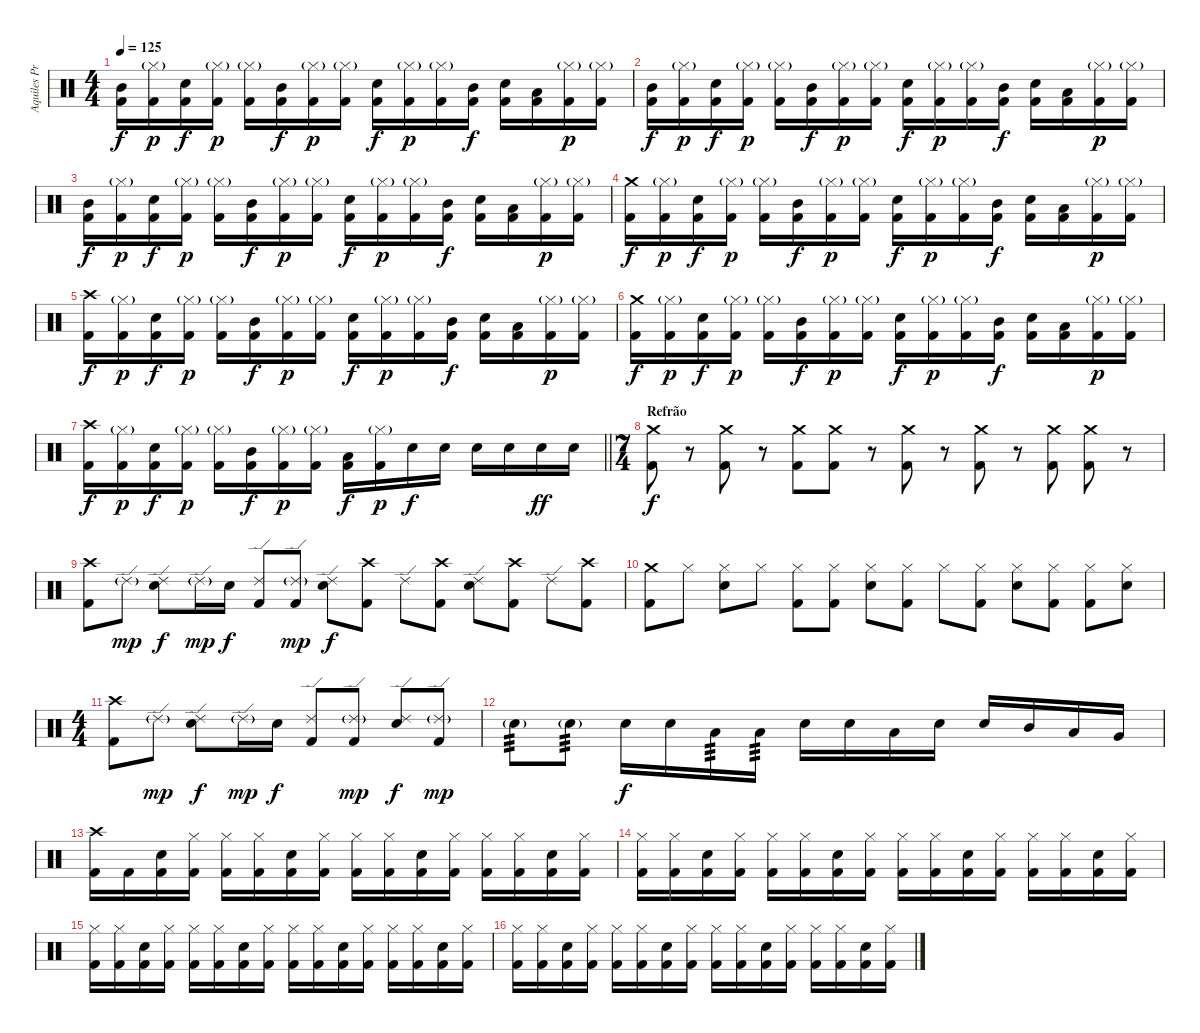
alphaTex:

\track ("Aquiles Priester" "Aquiles Pr") {instrument percussion}
\staff {score}
\articulation defaults
\ts (4 4)
\tempo 125
\clef neutral
\ks c
("Mid Tom (hit)" "Kick (hit) 2").16{dy f} ("Hi-Hat (closed)"{g} "Kick (hit) 2").16{dy p} ("Electric Snare (hit)" "Kick (hit) 2").16{dy f} ("Hi-Hat (closed)"{g} "Kick (hit) 2").16{dy p} ("Hi-Hat (closed)"{g} "Kick (hit) 2").16 ("Mid Tom (hit)" "Kick (hit) 2").16{dy f} ("Hi-Hat (closed)"{g} "Kick (hit) 2").16{dy p} ("Hi-Hat (closed)"{g} "Kick (hit) 2").16 ("Electric Snare (hit)" "Kick (hit) 2").16{dy f} ("Hi-Hat (closed)"{g} "Kick (hit) 2").16{dy p} ("Hi-Hat (closed)"{g} "Kick (hit) 2").16 ("Mid Tom (hit)" "Kick (hit) 2").16{dy f} ("Electric Snare (hit)" "Kick (hit) 2").16 ("Low Tom (hit)" "Kick (hit) 2").16 ("Hi-Hat (closed)"{g} "Kick (hit) 2").16{dy p} ("Hi-Hat (closed)"{g} "Kick (hit) 2").16 |
("Mid Tom (hit)" "Kick (hit) 2").16{dy f} ("Hi-Hat (closed)"{g} "Kick (hit) 2").16{dy p} ("Electric Snare (hit)" "Kick (hit) 2").16{dy f} ("Hi-Hat (closed)"{g} "Kick (hit) 2").16{dy p} ("Hi-Hat (closed)"{g} "Kick (hit) 2").16 ("Mid Tom (hit)" "Kick (hit) 2").16{dy f} ("Hi-Hat (closed)"{g} "Kick (hit) 2").16{dy p} ("Hi-Hat (closed)"{g} "Kick (hit) 2").16 ("Electric Snare (hit)" "Kick (hit) 2").16{dy f} ("Hi-Hat (closed)"{g} "Kick (hit) 2").16{dy p} ("Hi-Hat (closed)"{g} "Kick (hit) 2").16 ("Mid Tom (hit)" "Kick (hit) 2").16{dy f} ("Electric Snare (hit)" "Kick (hit) 2").16 ("Low Tom (hit)" "Kick (hit) 2").16 ("Hi-Hat (closed)"{g} "Kick (hit) 2").16{dy p} ("Hi-Hat (closed)"{g} "Kick (hit) 2").16 |
("Mid Tom (hit)" "Kick (hit) 2").16{dy f} ("Hi-Hat (closed)"{g} "Kick (hit) 2").16{dy p} ("Electric Snare (hit)" "Kick (hit) 2").16{dy f} ("Hi-Hat (closed)"{g} "Kick (hit) 2").16{dy p} ("Hi-Hat (closed)"{g} "Kick (hit) 2").16 ("Mid Tom (hit)" "Kick (hit) 2").16{dy f} ("Hi-Hat (closed)"{g} "Kick (hit) 2").16{dy p} ("Hi-Hat (closed)"{g} "Kick (hit) 2").16 ("Electric Snare (hit)" "Kick (hit) 2").16{dy f} ("Hi-Hat (closed)"{g} "Kick (hit) 2").16{dy p} ("Hi-Hat (closed)"{g} "Kick (hit) 2").16 ("Mid Tom (hit)" "Kick (hit) 2").16{dy f} ("Electric Snare (hit)" "Kick (hit) 2").16 ("Low Tom (hit)" "Kick (hit) 2").16 ("Hi-Hat (closed)"{g} "Kick (hit) 2").16{dy p} ("Hi-Hat (closed)"{g} "Kick (hit) 2").16 |
("Crash medium (hit)" "Kick (hit) 2").16{dy f} ("Hi-Hat (closed)"{g} "Kick (hit) 2").16{dy p} ("Electric Snare (hit)" "Kick (hit) 2").16{dy f} ("Hi-Hat (closed)"{g} "Kick (hit) 2").16{dy p} ("Hi-Hat (closed)"{g} "Kick (hit) 2").16 ("Mid Tom (hit)" "Kick (hit) 2").16{dy f} ("Hi-Hat (closed)"{g} "Kick (hit) 2").16{dy p} ("Hi-Hat (closed)"{g} "Kick (hit) 2").16 ("Electric Snare (hit)" "Kick (hit) 2").16{dy f} ("Hi-Hat (closed)"{g} "Kick (hit) 2").16{dy p} ("Hi-Hat (closed)"{g} "Kick (hit) 2").16 ("Mid Tom (hit)" "Kick (hit) 2").16{dy f} ("Electric Snare (hit)" "Kick (hit) 2").16 ("Low Tom (hit)" "Kick (hit) 2").16 ("Hi-Hat (closed)"{g} "Kick (hit) 2").16{dy p} ("Hi-Hat (closed)"{g} "Kick (hit) 2").16 |
("Crash high (hit)" "Kick (hit) 2").16{dy f} ("Hi-Hat (closed)"{g} "Kick (hit) 2").16{dy p} ("Electric Snare (hit)" "Kick (hit) 2").16{dy f} ("Hi-Hat (closed)"{g} "Kick (hit) 2").16{dy p} ("Hi-Hat (closed)"{g} "Kick (hit) 2").16 ("Mid Tom (hit)" "Kick (hit) 2").16{dy f} ("Hi-Hat (closed)"{g} "Kick (hit) 2").16{dy p} ("Hi-Hat (closed)"{g} "Kick (hit) 2").16 ("Electric Snare (hit)" "Kick (hit) 2").16{dy f} ("Hi-Hat (closed)"{g} "Kick (hit) 2").16{dy p} ("Hi-Hat (closed)"{g} "Kick (hit) 2").16 ("Mid Tom (hit)" "Kick (hit) 2").16{dy f} ("Electric Snare (hit)" "Kick (hit) 2").16 ("Low Tom (hit)" "Kick (hit) 2").16 ("Hi-Hat (closed)"{g} "Kick (hit) 2").16{dy p} ("Hi-Hat (closed)"{g} "Kick (hit) 2").16 |
("Crash medium (hit)" "Kick (hit) 2").16{dy f} ("Hi-Hat (closed)"{g} "Kick (hit) 2").16{dy p} ("Electric Snare (hit)" "Kick (hit) 2").16{dy f} ("Hi-Hat (closed)"{g} "Kick (hit) 2").16{dy p} ("Hi-Hat (closed)"{g} "Kick (hit) 2").16 ("Mid Tom (hit)" "Kick (hit) 2").16{dy f} ("Hi-Hat (closed)"{g} "Kick (hit) 2").16{dy p} ("Hi-Hat (closed)"{g} "Kick (hit) 2").16 ("Electric Snare (hit)" "Kick (hit) 2").16{dy f} ("Hi-Hat (closed)"{g} "Kick (hit) 2").16{dy p} ("Hi-Hat (closed)"{g} "Kick (hit) 2").16 ("Mid Tom (hit)" "Kick (hit) 2").16{dy f} ("Electric Snare (hit)" "Kick (hit) 2").16 ("Low Tom (hit)" "Kick (hit) 2").16 ("Hi-Hat (closed)"{g} "Kick (hit) 2").16{dy p} ("Hi-Hat (closed)"{g} "Kick (hit) 2").16 |
\barLineRight lightlight
("Crash high (hit)" "Kick (hit) 2").16{dy f} ("Hi-Hat (closed)"{g} "Kick (hit) 2").16{dy p} ("Electric Snare (hit)" "Kick (hit) 2").16{dy f} ("Hi-Hat (closed)"{g} "Kick (hit) 2").16{dy p} ("Hi-Hat (closed)"{g} "Kick (hit) 2").16 ("Mid Tom (hit)" "Kick (hit) 2").16{dy f} ("Hi-Hat (closed)"{g} "Kick (hit) 2").16{dy p} ("Hi-Hat (closed)"{g} "Kick (hit) 2").16 ("Low Tom (hit)" "Kick (hit) 2").16{dy f} ("Hi-Hat (closed)"{g} "Kick (hit) 2").16{dy p} "Electric Snare (hit)".16{dy f} "Electric Snare (hit)".16 "Electric Snare (hit)".16 "Electric Snare (hit)".16 "Electric Snare (hit)".16{dy ff} "Electric Snare (hit)".16 |
\ts (7 4)
\section ("" "Refrão")
("Crash medium (hit)" "Kick (hit) 2").8{dy f} r.8{volume 0} ("Crash medium (hit)" "Kick (hit) 2").8{volume 16} r.8{volume 0} ("Crash medium (hit)" "Kick (hit) 2").8{volume 16} ("Crash medium (hit)" "Kick (hit) 2").8 r.8{volume 0} ("Crash medium (hit)" "Kick (hit) 2").8{volume 16} r.8{volume 0} ("Crash medium (hit)" "Kick (hit) 2").8{volume 16} r.8{volume 0} ("Crash medium (hit)" "Kick (hit) 2").8{volume 16} ("Crash medium (hit)" "Kick (hit) 2").8 r.8{volume 0} |
("Crash high (hit)" "Kick (hit) 2").8{volume 16} "Ride (edge) 2"{g}.8{dy mp} ("Ride (edge) 2" "Electric Snare (hit)").8{dy f} "Ride (edge) 2"{g}.16{dy mp} "Electric Snare (hit)".16{dy f} ("Ride (edge) 2" "Kick (hit) 2").8 ("Ride (edge) 2"{g} "Kick (hit) 2").8{dy mp} ("Ride (edge) 2" "Electric Snare (hit)").8{dy f} ("Crash high (hit)" "Kick (hit) 2").8 "Ride (edge) 2".8 ("Crash high (hit)" "Kick (hit) 2").8 ("Ride (edge) 2" "Electric Snare (hit)").8 ("Crash high (hit)" "Kick (hit) 2").8 "Ride (edge) 2".8 ("Crash high (hit)" "Kick (hit) 2").8 |
("Crash medium (hit)" "Kick (hit) 2").8 "Hi-Hat (closed)".8 ("Hi-Hat (closed)" "Electric Snare (hit)").8 "Hi-Hat (closed)".8 ("Hi-Hat (closed)" "Kick (hit) 2").8 ("Hi-Hat (closed)" "Kick (hit) 2").8 ("Hi-Hat (closed)" "Electric Snare (hit)").8 ("Hi-Hat (closed)" "Kick (hit) 2").8 "Hi-Hat (closed)".8 ("Hi-Hat (closed)" "Kick (hit) 2").8 ("Hi-Hat (closed)" "Electric Snare (hit)").8 ("Hi-Hat (closed)" "Kick (hit) 2").8 ("Hi-Hat (closed)" "Kick (hit) 2").8 ("Hi-Hat (closed)" "Electric Snare (hit)").8 |
\ts (4 4)
("Crash high (hit)" "Kick (hit) 2").8{volume 16} "Ride (edge) 2"{g}.8{dy mp} ("Ride (edge) 2" "Electric Snare (hit)").8{dy f} "Ride (edge) 2"{g}.16{dy mp} "Electric Snare (hit)".16{dy f} ("Ride (edge) 2" "Kick (hit) 2").8 ("Ride (edge) 2"{g} "Kick (hit) 2").8{dy mp} ("Ride (edge) 2" "Electric Snare (hit)").8{dy f} ("Ride (edge) 2"{g} "Kick (hit) 2").8{dy mp} |
"Electric Snare (hit)"{g}.8{tp 3} "Electric Snare (hit)"{g}.8{tp 3} "Electric Snare (hit)".16{dy f} "Electric Snare (hit)".16 "Low Tom (hit)".16{tp 3} "Low Tom (hit)".16{tp 3} "Electric Snare (hit)".16 "Electric Snare (hit)".16 "Low Tom (hit)".16 "Electric Snare (hit)".16 "Electric Snare (hit)".16 "Mid Tom (hit)".16 "Low Tom (hit)".16 "Very Low Tom (hit)".16 |
("Crash high (hit)" "Kick (hit) 2").16 "Kick (hit) 2".16 ("Electric Snare (hit)" "Kick (hit) 2").16 ("Hi-Hat (closed)" "Kick (hit) 2").16 ("Hi-Hat (closed)" "Kick (hit) 2").16 ("Hi-Hat (closed)" "Kick (hit) 2").16 ("Electric Snare (hit)" "Kick (hit) 2").16 ("Hi-Hat (closed)" "Kick (hit) 2").16 ("Hi-Hat (closed)" "Kick (hit) 2").16 ("Hi-Hat (closed)" "Kick (hit) 2").16 ("Electric Snare (hit)" "Kick (hit) 2").16 ("Hi-Hat (closed)" "Kick (hit) 2").16 ("Hi-Hat (closed)" "Kick (hit) 2").16 ("Hi-Hat (closed)" "Kick (hit) 2").16 ("Electric Snare (hit)" "Kick (hit) 2").16 ("Hi-Hat (closed)" "Kick (hit) 2").16 |
("Hi-Hat (closed)" "Kick (hit) 2").16 ("Hi-Hat (closed)" "Kick (hit) 2").16 ("Electric Snare (hit)" "Kick (hit) 2").16 ("Hi-Hat (closed)" "Kick (hit) 2").16 ("Hi-Hat (closed)" "Kick (hit) 2").16 ("Hi-Hat (closed)" "Kick (hit) 2").16 ("Electric Snare (hit)" "Kick (hit) 2").16 ("Hi-Hat (closed)" "Kick (hit) 2").16 ("Hi-Hat (closed)" "Kick (hit) 2").16 ("Hi-Hat (closed)" "Kick (hit) 2").16 ("Electric Snare (hit)" "Kick (hit) 2").16 ("Hi-Hat (closed)" "Kick (hit) 2").16 ("Hi-Hat (closed)" "Kick (hit) 2").16 ("Hi-Hat (closed)" "Kick (hit) 2").16 ("Electric Snare (hit)" "Kick (hit) 2").16 ("Hi-Hat (closed)" "Kick (hit) 2").16 |
("Hi-Hat (closed)" "Kick (hit) 2").16 ("Hi-Hat (closed)" "Kick (hit) 2").16 ("Electric Snare (hit)" "Kick (hit) 2").16 ("Hi-Hat (closed)" "Kick (hit) 2").16 ("Hi-Hat (closed)" "Kick (hit) 2").16 ("Hi-Hat (closed)" "Kick (hit) 2").16 ("Electric Snare (hit)" "Kick (hit) 2").16 ("Hi-Hat (closed)" "Kick (hit) 2").16 ("Hi-Hat (closed)" "Kick (hit) 2").16 ("Hi-Hat (closed)" "Kick (hit) 2").16 ("Electric Snare (hit)" "Kick (hit) 2").16 ("Hi-Hat (closed)" "Kick (hit) 2").16 ("Hi-Hat (closed)" "Kick (hit) 2").16 ("Hi-Hat (closed)" "Kick (hit) 2").16 ("Electric Snare (hit)" "Kick (hit) 2").16 ("Hi-Hat (closed)" "Kick (hit) 2").16 |
("Hi-Hat (closed)" "Kick (hit) 2").16 ("Hi-Hat (closed)" "Kick (hit) 2").16 ("Electric Snare (hit)" "Kick (hit) 2").16 ("Hi-Hat (closed)" "Kick (hit) 2").16 ("Hi-Hat (closed)" "Kick (hit) 2").16 ("Hi-Hat (closed)" "Kick (hit) 2").16 ("Electric Snare (hit)" "Kick (hit) 2").16 ("Hi-Hat (closed)" "Kick (hit) 2").16 ("Hi-Hat (closed)" "Kick (hit) 2").16 ("Hi-Hat (closed)" "Kick (hit) 2").16 ("Electric Snare (hit)" "Kick (hit) 2").16 ("Hi-Hat (closed)" "Kick (hit) 2").16 ("Hi-Hat (closed)" "Kick (hit) 2").16 ("Hi-Hat (closed)" "Kick (hit) 2").16 ("Electric Snare (hit)" "Kick (hit) 2").16 ("Hi-Hat (closed)" "Kick (hit) 2").16
